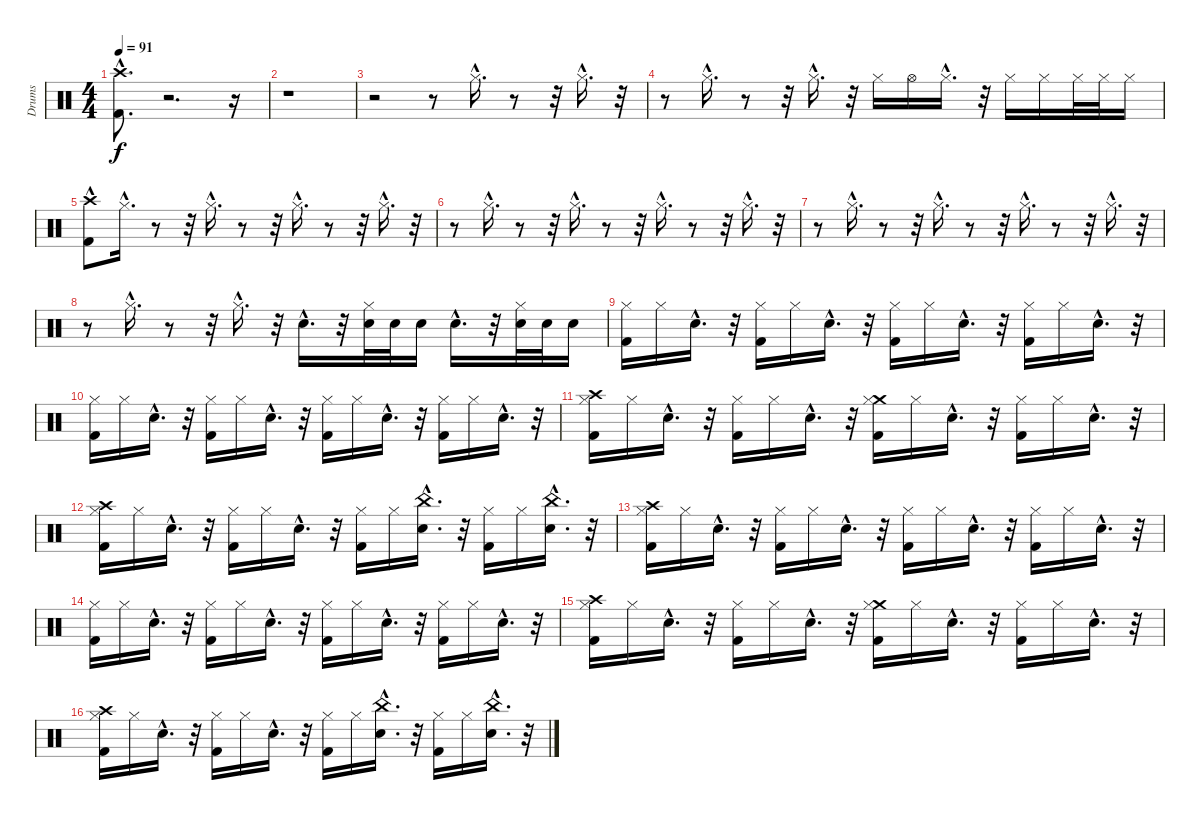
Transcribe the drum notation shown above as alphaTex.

\track ("Drums" "Drums") {instrument percussion}
\staff {score}
\articulation defaults
\ts (4 4)
\tempo 91
\clef neutral
\ks c
("Crash high (hit)"{hac} "Kick (hit) 2"{hac}).8{d dy f} r.2{d} r.16 |
r.1 |
r.2 r.8 "Hi-Hat (closed)"{hac}.16{d} r.8 r.32 "Hi-Hat (closed)"{hac}.16{d} r.32 |
r.8 "Hi-Hat (closed)"{hac}.16{d} r.8 r.32 "Hi-Hat (closed)"{hac}.16{d} r.32 "Hi-Hat (closed)".16 "Hi-Hat (open)".16 "Hi-Hat (closed)"{hac}.16{d} r.32 "Hi-Hat (closed)".16 "Hi-Hat (closed)".16 "Hi-Hat (closed)".32 "Hi-Hat (closed)".32 "Hi-Hat (closed)".16 |
("Kick (hit) 2"{hac} "Crash high (hit)"{hac}).8 "Hi-Hat (closed)"{hac}.16{d} r.8 r.32 "Hi-Hat (closed)"{hac}.16{d} r.8 r.32 "Hi-Hat (closed)"{hac}.16{d} r.8 r.32 "Hi-Hat (closed)"{hac}.16{d} r.32 |
r.8 "Hi-Hat (closed)"{hac}.16{d} r.8 r.32 "Hi-Hat (closed)"{hac}.16{d} r.8 r.32 "Hi-Hat (closed)"{hac}.16{d} r.8 r.32 "Hi-Hat (closed)"{hac}.16{d} r.32 |
r.8 "Hi-Hat (closed)"{hac}.16{d} r.8 r.32 "Hi-Hat (closed)"{hac}.16{d} r.8 r.32 "Hi-Hat (closed)"{hac}.16{d} r.8 r.32 "Hi-Hat (closed)"{hac}.16{d} r.32 |
r.8 "Hi-Hat (closed)"{hac}.16{d} r.8 r.32 "Hi-Hat (closed)"{hac}.16{d} r.32 "Snare (hit) 2"{hac}.16{d} r.32 ("Hi-Hat (closed)" "Snare (hit) 2").32 "Snare (hit) 2".32 "Snare (hit) 2".16 "Snare (hit) 2"{hac}.16{d} r.32 ("Hi-Hat (closed)" "Snare (hit) 2").32 "Snare (hit) 2".32 "Snare (hit) 2".16 |
("Kick (hit) 2" "Hi-Hat (closed)").16 "Hi-Hat (closed)".16 "Snare (hit) 2"{hac}.16{d} r.32 ("Kick (hit) 2" "Hi-Hat (closed)").16 "Hi-Hat (closed)".16 "Snare (hit) 2"{hac}.16{d} r.32 ("Kick (hit) 2" "Hi-Hat (closed)").16 "Hi-Hat (closed)".16 "Snare (hit) 2"{hac}.16{d} r.32 ("Kick (hit) 2" "Hi-Hat (closed)").16 "Hi-Hat (closed)".16 "Snare (hit) 2"{hac}.16{d} r.32 |
("Kick (hit) 2" "Hi-Hat (closed)").16 "Hi-Hat (closed)".16 "Snare (hit) 2"{hac}.16{d} r.32 ("Kick (hit) 2" "Hi-Hat (closed)").16 "Hi-Hat (closed)".16 "Snare (hit) 2"{hac}.16{d} r.32 ("Kick (hit) 2" "Hi-Hat (closed)").16 "Hi-Hat (closed)".16 "Snare (hit) 2"{hac}.16{d} r.32 ("Kick (hit) 2" "Hi-Hat (closed)").16 "Hi-Hat (closed)".16 "Snare (hit) 2"{hac}.16{d} r.32 |
("Crash high (hit)" "Kick (hit) 2" "Hi-Hat (closed)").16 "Hi-Hat (closed)".16 "Snare (hit) 2"{hac}.16{d} r.32 ("Kick (hit) 2" "Hi-Hat (closed)").16 "Hi-Hat (closed)".16 "Snare (hit) 2"{hac}.16{d} r.32 ("Crash medium (hit)" "Kick (hit) 2" "Hi-Hat (closed)").16 "Hi-Hat (closed)".16 "Snare (hit) 2"{hac}.16{d} r.32 ("Kick (hit) 2" "Hi-Hat (closed)").16 "Hi-Hat (closed)".16 "Snare (hit) 2"{hac}.16{d} r.32 |
("Crash high (hit)" "Kick (hit) 2" "Hi-Hat (closed)").16 "Hi-Hat (closed)".16 "Snare (hit) 2"{hac}.16{d} r.32 ("Kick (hit) 2" "Hi-Hat (closed)").16 "Hi-Hat (closed)".16 "Snare (hit) 2"{hac}.16{d} r.32 ("Kick (hit) 2" "Hi-Hat (closed)").16 "Hi-Hat (closed)".16 ("China (hit)"{hac} "Snare (hit) 2"{hac}).16{d} r.32 ("Kick (hit) 2" "Hi-Hat (closed)").16 "Hi-Hat (closed)".16 ("China (hit)"{hac} "Snare (hit) 2"{hac}).16{d} r.32 |
("Crash high (hit)" "Kick (hit) 2" "Hi-Hat (closed)").16 "Hi-Hat (closed)".16 "Snare (hit) 2"{hac}.16{d} r.32 ("Kick (hit) 2" "Hi-Hat (closed)").16 "Hi-Hat (closed)".16 "Snare (hit) 2"{hac}.16{d} r.32 ("Kick (hit) 2" "Hi-Hat (closed)").16 "Hi-Hat (closed)".16 "Snare (hit) 2"{hac}.16{d} r.32 ("Kick (hit) 2" "Hi-Hat (closed)").16 "Hi-Hat (closed)".16 "Snare (hit) 2"{hac}.16{d} r.32 |
("Kick (hit) 2" "Hi-Hat (closed)").16 "Hi-Hat (closed)".16 "Snare (hit) 2"{hac}.16{d} r.32 ("Kick (hit) 2" "Hi-Hat (closed)").16 "Hi-Hat (closed)".16 "Snare (hit) 2"{hac}.16{d} r.32 ("Kick (hit) 2" "Hi-Hat (closed)").16 "Hi-Hat (closed)".16 "Snare (hit) 2"{hac}.16{d} r.32 ("Kick (hit) 2" "Hi-Hat (closed)").16 "Hi-Hat (closed)".16 "Snare (hit) 2"{hac}.16{d} r.32 |
("Crash high (hit)" "Kick (hit) 2" "Hi-Hat (closed)").16 "Hi-Hat (closed)".16 "Snare (hit) 2"{hac}.16{d} r.32 ("Kick (hit) 2" "Hi-Hat (closed)").16 "Hi-Hat (closed)".16 "Snare (hit) 2"{hac}.16{d} r.32 ("Crash medium (hit)" "Kick (hit) 2" "Hi-Hat (closed)").16 "Hi-Hat (closed)".16 "Snare (hit) 2"{hac}.16{d} r.32 ("Kick (hit) 2" "Hi-Hat (closed)").16 "Hi-Hat (closed)".16 "Snare (hit) 2"{hac}.16{d} r.32 |
("Crash high (hit)" "Kick (hit) 2" "Hi-Hat (closed)").16 "Hi-Hat (closed)".16 "Snare (hit) 2"{hac}.16{d} r.32 ("Kick (hit) 2" "Hi-Hat (closed)").16 "Hi-Hat (closed)".16 "Snare (hit) 2"{hac}.16{d} r.32 ("Kick (hit) 2" "Hi-Hat (closed)").16 "Hi-Hat (closed)".16 ("China (hit)"{hac} "Snare (hit) 2"{hac}).16{d} r.32 ("Kick (hit) 2" "Hi-Hat (closed)").16 "Hi-Hat (closed)".16 ("China (hit)"{hac} "Snare (hit) 2"{hac}).16{d} r.32
